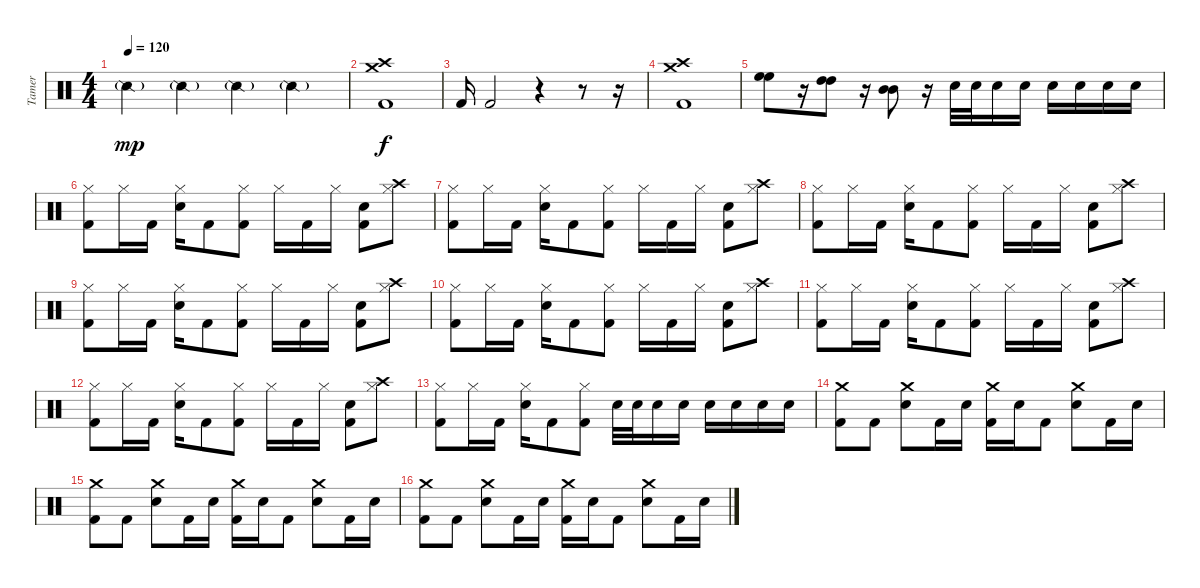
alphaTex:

\track ("Tamer" "Tamer") {instrument percussion}
\staff {score}
\articulation defaults
\ts (4 4)
\tempo 120
\clef neutral
\ks c "Snare (side stick) 2"{g}.4{dy mp} "Snare (side stick) 2"{g}.4 "Snare (side stick) 2"{g}.4 "Snare (side stick) 2"{g}.4
|
("Crash medium (hit)" "Crash high (hit)" "Kick (hit) 2").1{dy f} |
"Kick (hit) 2".16 "Kick (hit) 2".2 r.4 r.8 r.16 |
("Crash medium (hit)" "Crash high (hit)" "Kick (hit) 2").1 |
("High Floor Tom (hit)" "High Floor Tom (hit)").8 r.16 ("High Tom (hit)" "High Tom (hit)").8 r.16 ("Mid Tom (hit)" "Mid Tom (hit)").8 r.16 "Electric Snare (hit)".32 "Electric Snare (hit)".32 "Electric Snare (hit)".16 "Electric Snare (hit)".16 "Electric Snare (hit)".16 "Electric Snare (hit)".16 "Electric Snare (hit)".16 "Electric Snare (hit)".16 |
("Hi-Hat (closed)" "Kick (hit) 2").8 "Hi-Hat (closed)".16 "Kick (hit) 2".16 ("Electric Snare (hit)" "Hi-Hat (closed)").16 "Kick (hit) 2".8 ("Hi-Hat (closed)" "Kick (hit) 2").8 "Hi-Hat (closed)".16 "Kick (hit) 2".16 "Hi-Hat (closed)".16 ("Electric Snare (hit)" "Kick (hit) 2").8 ("Crash high (hit)" "Hi-Hat (closed)").8 |
("Hi-Hat (closed)" "Kick (hit) 2").8 "Hi-Hat (closed)".16 "Kick (hit) 2".16 ("Electric Snare (hit)" "Hi-Hat (closed)").16 "Kick (hit) 2".8 ("Hi-Hat (closed)" "Kick (hit) 2").8 "Hi-Hat (closed)".16 "Kick (hit) 2".16 "Hi-Hat (closed)".16 ("Electric Snare (hit)" "Kick (hit) 2").8 ("Crash high (hit)" "Hi-Hat (closed)").8 |
("Hi-Hat (closed)" "Kick (hit) 2").8 "Hi-Hat (closed)".16 "Kick (hit) 2".16 ("Electric Snare (hit)" "Hi-Hat (closed)").16 "Kick (hit) 2".8 ("Hi-Hat (closed)" "Kick (hit) 2").8 "Hi-Hat (closed)".16 "Kick (hit) 2".16 "Hi-Hat (closed)".16 ("Electric Snare (hit)" "Kick (hit) 2").8 ("Crash high (hit)" "Hi-Hat (closed)").8 |
("Hi-Hat (closed)" "Kick (hit) 2").8 "Hi-Hat (closed)".16 "Kick (hit) 2".16 ("Electric Snare (hit)" "Hi-Hat (closed)").16 "Kick (hit) 2".8 ("Hi-Hat (closed)" "Kick (hit) 2").8 "Hi-Hat (closed)".16 "Kick (hit) 2".16 "Hi-Hat (closed)".16 ("Electric Snare (hit)" "Kick (hit) 2").8 ("Crash high (hit)" "Hi-Hat (closed)").8 |
("Hi-Hat (closed)" "Kick (hit) 2").8 "Hi-Hat (closed)".16 "Kick (hit) 2".16 ("Electric Snare (hit)" "Hi-Hat (closed)").16 "Kick (hit) 2".8 ("Hi-Hat (closed)" "Kick (hit) 2").8 "Hi-Hat (closed)".16 "Kick (hit) 2".16 "Hi-Hat (closed)".16 ("Electric Snare (hit)" "Kick (hit) 2").8 ("Crash high (hit)" "Hi-Hat (closed)").8 |
("Hi-Hat (closed)" "Kick (hit) 2").8 "Hi-Hat (closed)".16 "Kick (hit) 2".16 ("Electric Snare (hit)" "Hi-Hat (closed)").16 "Kick (hit) 2".8 ("Hi-Hat (closed)" "Kick (hit) 2").8 "Hi-Hat (closed)".16 "Kick (hit) 2".16 "Hi-Hat (closed)".16 ("Electric Snare (hit)" "Kick (hit) 2").8 ("Crash high (hit)" "Hi-Hat (closed)").8 |
("Hi-Hat (closed)" "Kick (hit) 2").8 "Hi-Hat (closed)".16 "Kick (hit) 2".16 ("Electric Snare (hit)" "Hi-Hat (closed)").16 "Kick (hit) 2".8 ("Hi-Hat (closed)" "Kick (hit) 2").8 "Hi-Hat (closed)".16 "Kick (hit) 2".16 "Hi-Hat (closed)".16 ("Electric Snare (hit)" "Kick (hit) 2").8 ("Crash high (hit)" "Hi-Hat (closed)").8 |
("Hi-Hat (closed)" "Kick (hit) 2").8 "Hi-Hat (closed)".16 "Kick (hit) 2".16 ("Electric Snare (hit)" "Hi-Hat (closed)").16 "Kick (hit) 2".8 ("Hi-Hat (closed)" "Kick (hit) 2").8 "Electric Snare (hit)".32 "Electric Snare (hit)".32 "Electric Snare (hit)".16 "Electric Snare (hit)".16 "Electric Snare (hit)".16 "Electric Snare (hit)".16 "Electric Snare (hit)".16 "Electric Snare (hit)".16 |
("Crash medium (hit)" "Kick (hit) 2").8 "Kick (hit) 2".8 ("Crash medium (hit)" "Electric Snare (hit)").8 "Kick (hit) 2".16 "Electric Snare (hit)".16 ("Crash medium (hit)" "Kick (hit) 2").16 "Electric Snare (hit)".16 "Kick (hit) 2".8 ("Crash medium (hit)" "Electric Snare (hit)").8 "Kick (hit) 2".16 "Electric Snare (hit)".16 |
("Crash medium (hit)" "Kick (hit) 2").8 "Kick (hit) 2".8 ("Crash medium (hit)" "Electric Snare (hit)").8 "Kick (hit) 2".16 "Electric Snare (hit)".16 ("Crash medium (hit)" "Kick (hit) 2").16 "Electric Snare (hit)".16 "Kick (hit) 2".8 ("Crash medium (hit)" "Electric Snare (hit)").8 "Kick (hit) 2".16 "Electric Snare (hit)".16 |
("Crash medium (hit)" "Kick (hit) 2").8 "Kick (hit) 2".8 ("Crash medium (hit)" "Electric Snare (hit)").8 "Kick (hit) 2".16 "Electric Snare (hit)".16 ("Crash medium (hit)" "Kick (hit) 2").16 "Electric Snare (hit)".16 "Kick (hit) 2".8 ("Crash medium (hit)" "Electric Snare (hit)").8 "Kick (hit) 2".16 "Electric Snare (hit)".16
